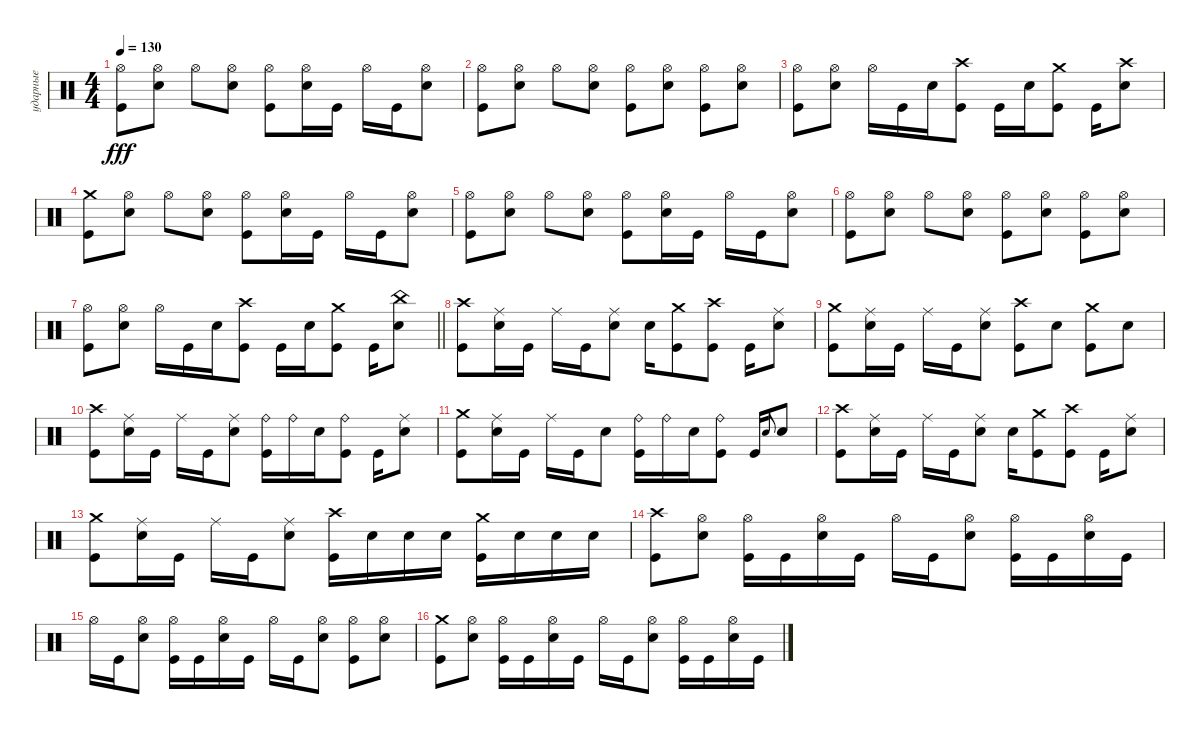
\track ("ударные" "ударные") {instrument percussion}
\staff {score}
\articulation defaults
\ts (4 4)
\tempo 130
\clef neutral
\ks c
("Hi-Hat (open)" "Kick (hit)").8{dy fff} ("Hi-Hat (open)" "Snare (hit) 2").8 "Hi-Hat (open)".8 ("Hi-Hat (open)" "Snare (hit) 2").8 ("Hi-Hat (open)" "Kick (hit)").8 ("Hi-Hat (open)" "Snare (hit) 2").16 "Kick (hit)".16 "Hi-Hat (open)".16 "Kick (hit)".16 ("Hi-Hat (open)" "Snare (hit) 2").8 |
("Hi-Hat (open)" "Kick (hit)").8 ("Hi-Hat (open)" "Snare (hit) 2").8 "Hi-Hat (open)".8 ("Hi-Hat (open)" "Snare (hit) 2").8 ("Hi-Hat (open)" "Kick (hit)").8 ("Hi-Hat (open)" "Snare (hit) 2").8 ("Hi-Hat (open)" "Kick (hit)").8 ("Hi-Hat (open)" "Snare (hit) 2").8 |
("Hi-Hat (open)" "Kick (hit)").8 ("Hi-Hat (open)" "Snare (hit) 2").8 "Hi-Hat (open)".16 "Kick (hit)".16 "Snare (hit) 2".16 ("Crash high (hit)" "Kick (hit)").8 "Kick (hit)".16 "Snare (hit) 2".16 ("Crash medium (hit)" "Kick (hit)").8 "Kick (hit)".16 ("Crash high (hit)" "Snare (hit) 2").8 |
("Crash medium (hit)" "Kick (hit)").8 ("Hi-Hat (open)" "Snare (hit) 2").8 "Hi-Hat (open)".8 ("Hi-Hat (open)" "Snare (hit) 2").8 ("Hi-Hat (open)" "Kick (hit)").8 ("Hi-Hat (open)" "Snare (hit) 2").16 "Kick (hit)".16 "Hi-Hat (open)".16 "Kick (hit)".16 ("Hi-Hat (open)" "Snare (hit) 2").8 |
("Hi-Hat (open)" "Kick (hit)").8 ("Hi-Hat (open)" "Snare (hit) 2").8 "Hi-Hat (open)".8 ("Hi-Hat (open)" "Snare (hit) 2").8 ("Hi-Hat (open)" "Kick (hit)").8 ("Hi-Hat (open)" "Snare (hit) 2").16 "Kick (hit)".16 "Hi-Hat (open)".16 "Kick (hit)".16 ("Hi-Hat (open)" "Snare (hit) 2").8 |
("Hi-Hat (open)" "Kick (hit)").8 ("Hi-Hat (open)" "Snare (hit) 2").8 "Hi-Hat (open)".8 ("Hi-Hat (open)" "Snare (hit) 2").8 ("Hi-Hat (open)" "Kick (hit)").8 ("Hi-Hat (open)" "Snare (hit) 2").8 ("Hi-Hat (open)" "Kick (hit)").8 ("Hi-Hat (open)" "Snare (hit) 2").8 |
\barLineRight lightlight
("Hi-Hat (open)" "Kick (hit)").8 ("Hi-Hat (open)" "Snare (hit) 2").8 "Hi-Hat (open)".16 "Kick (hit)".16 "Snare (hit) 2".16 ("Crash high (hit)" "Kick (hit)").8 "Kick (hit)".16 "Snare (hit) 2".16 ("Crash medium (hit)" "Kick (hit)").8 "Kick (hit)".16 ("China (hit)" "Snare (hit) 2").8 |
("Crash high (hit)" "Kick (hit)").8 ("Ride (middle)" "Snare (hit) 2").16 "Kick (hit)".16 "Ride (middle)".16 "Kick (hit)".16 ("Ride (middle)" "Snare (hit) 2").8 "Snare (hit) 2".16 ("Crash medium (hit)" "Kick (hit)").8 ("Crash high (hit)" "Kick (hit)").8 "Kick (hit)".16 ("Ride (middle)" "Snare (hit) 2").8 |
("Crash medium (hit)" "Kick (hit)").8 ("Ride (middle)" "Snare (hit) 2").16 "Kick (hit)".16 "Ride (middle)".16 "Kick (hit)".16 ("Ride (middle)" "Snare (hit) 2").8 ("Crash high (hit)" "Kick (hit)").8 "Snare (hit) 2".8 ("Crash medium (hit)" "Kick (hit)").8 "Snare (hit) 2".8 |
("Crash high (hit)" "Kick (hit)").8 ("Ride (middle)" "Snare (hit) 2").16 "Kick (hit)".16 "Ride (middle)".16 "Kick (hit)".16 ("Ride (middle)" "Snare (hit) 2").8 ("Ride (bell)" "Kick (hit)").16 "Ride (bell)".16 "Snare (hit) 2".16 ("Ride (bell)" "Kick (hit)").8 "Kick (hit)".16 ("Ride (middle)" "Snare (hit) 2").8 |
("Crash medium (hit)" "Kick (hit)").8 ("Ride (middle)" "Snare (hit) 2").16 "Kick (hit)".16 "Ride (middle)".16 "Kick (hit)".16 "Snare (hit) 2".8 ("Ride (bell)" "Kick (hit)").16 "Ride (bell)".16 "Snare (hit) 2".16 ("Ride (bell)" "Kick (hit)").8 "Kick (hit)".16 "Snare (hit)".8{gr onbeat} "Snare (hit) 2".8 |
("Crash high (hit)" "Kick (hit)").8 ("Ride (middle)" "Snare (hit) 2").16 "Kick (hit)".16 "Ride (middle)".16 "Kick (hit)".16 ("Ride (middle)" "Snare (hit) 2").8 "Snare (hit) 2".16 ("Crash medium (hit)" "Kick (hit)").8 ("Crash high (hit)" "Kick (hit)").8 "Kick (hit)".16 ("Ride (middle)" "Snare (hit) 2").8 |
("Crash medium (hit)" "Kick (hit)").8 ("Ride (middle)" "Snare (hit) 2").16 "Kick (hit)".16 "Ride (middle)".16 "Kick (hit)".16 ("Ride (middle)" "Snare (hit) 2").8 ("Crash high (hit)" "Kick (hit)").16 "Snare (hit) 2".16 "Snare (hit) 2".16 "Snare (hit) 2".16 ("Crash medium (hit)" "Kick (hit)").16 "Snare (hit) 2".16 "Snare (hit) 2".16 "Snare (hit) 2".16 |
("Crash high (hit)" "Kick (hit)").8 ("Hi-Hat (open)" "Snare (hit) 2").8 ("Hi-Hat (open)" "Kick (hit)").16 "Kick (hit)".16 ("Hi-Hat (open)" "Snare (hit) 2").16 "Kick (hit)".16 "Hi-Hat (open)".16 "Kick (hit)".16 ("Hi-Hat (open)" "Snare (hit) 2").8 ("Hi-Hat (open)" "Kick (hit)").16 "Kick (hit)".16 ("Hi-Hat (open)" "Snare (hit) 2").16 "Kick (hit)".16 |
"Hi-Hat (open)".16 "Kick (hit)".16 ("Hi-Hat (open)" "Snare (hit) 2").8 ("Hi-Hat (open)" "Kick (hit)").16 "Kick (hit)".16 ("Hi-Hat (open)" "Snare (hit) 2").16 "Kick (hit)".16 "Hi-Hat (open)".16 "Kick (hit)".16 ("Hi-Hat (open)" "Snare (hit) 2").8 ("Hi-Hat (open)" "Kick (hit)").8 ("Hi-Hat (open)" "Snare (hit) 2").8 |
("Crash medium (hit)" "Kick (hit)").8 ("Hi-Hat (open)" "Snare (hit) 2").8 ("Hi-Hat (open)" "Kick (hit)").16 "Kick (hit)".16 ("Hi-Hat (open)" "Snare (hit) 2").16 "Kick (hit)".16 "Hi-Hat (open)".16 "Kick (hit)".16 ("Hi-Hat (open)" "Snare (hit) 2").8 ("Hi-Hat (open)" "Kick (hit)").16 "Kick (hit)".16 ("Hi-Hat (open)" "Snare (hit) 2").16 "Kick (hit)".16
